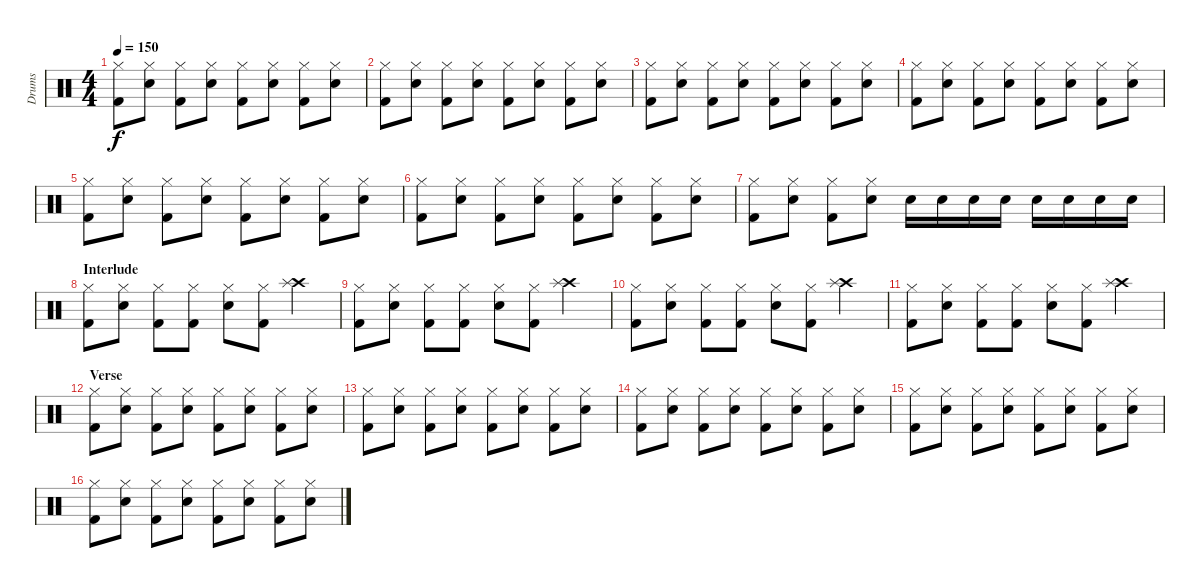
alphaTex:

\track ("Drums" "Drums") {instrument percussion}
\staff {score}
\articulation defaults
\ts (4 4)
\tempo 150
\clef neutral
\ks c
("Hi-Hat (closed)" "Kick (hit) 2").8{dy f} ("Hi-Hat (closed)" "Snare (hit) 2").8 ("Hi-Hat (closed)" "Kick (hit) 2").8 ("Hi-Hat (closed)" "Snare (hit) 2").8 ("Hi-Hat (closed)" "Kick (hit) 2").8 ("Hi-Hat (closed)" "Snare (hit) 2").8 ("Hi-Hat (closed)" "Kick (hit) 2").8 ("Hi-Hat (closed)" "Snare (hit) 2").8 |
("Hi-Hat (closed)" "Kick (hit) 2").8 ("Hi-Hat (closed)" "Snare (hit) 2").8 ("Hi-Hat (closed)" "Kick (hit) 2").8 ("Hi-Hat (closed)" "Snare (hit) 2").8 ("Hi-Hat (closed)" "Kick (hit) 2").8 ("Hi-Hat (closed)" "Snare (hit) 2").8 ("Hi-Hat (closed)" "Kick (hit) 2").8 ("Hi-Hat (closed)" "Snare (hit) 2").8 |
("Hi-Hat (closed)" "Kick (hit) 2").8 ("Hi-Hat (closed)" "Snare (hit) 2").8 ("Hi-Hat (closed)" "Kick (hit) 2").8 ("Hi-Hat (closed)" "Snare (hit) 2").8 ("Hi-Hat (closed)" "Kick (hit) 2").8 ("Hi-Hat (closed)" "Snare (hit) 2").8 ("Hi-Hat (closed)" "Kick (hit) 2").8 ("Hi-Hat (closed)" "Snare (hit) 2").8 |
("Hi-Hat (closed)" "Kick (hit) 2").8 ("Hi-Hat (closed)" "Snare (hit) 2").8 ("Hi-Hat (closed)" "Kick (hit) 2").8 ("Hi-Hat (closed)" "Snare (hit) 2").8 ("Hi-Hat (closed)" "Kick (hit) 2").8 ("Hi-Hat (closed)" "Snare (hit) 2").8 ("Hi-Hat (closed)" "Kick (hit) 2").8 ("Hi-Hat (closed)" "Snare (hit) 2").8 |
("Hi-Hat (closed)" "Kick (hit) 2").8 ("Hi-Hat (closed)" "Snare (hit) 2").8 ("Hi-Hat (closed)" "Kick (hit) 2").8 ("Hi-Hat (closed)" "Snare (hit) 2").8 ("Hi-Hat (closed)" "Kick (hit) 2").8 ("Hi-Hat (closed)" "Snare (hit) 2").8 ("Hi-Hat (closed)" "Kick (hit) 2").8 ("Hi-Hat (closed)" "Snare (hit) 2").8 |
("Hi-Hat (closed)" "Kick (hit) 2").8 ("Hi-Hat (closed)" "Snare (hit) 2").8 ("Hi-Hat (closed)" "Kick (hit) 2").8 ("Hi-Hat (closed)" "Snare (hit) 2").8 ("Hi-Hat (closed)" "Kick (hit) 2").8 ("Hi-Hat (closed)" "Snare (hit) 2").8 ("Hi-Hat (closed)" "Kick (hit) 2").8 ("Hi-Hat (closed)" "Snare (hit) 2").8 |
("Hi-Hat (closed)" "Kick (hit) 2").8 ("Hi-Hat (closed)" "Snare (hit) 2").8 ("Hi-Hat (closed)" "Kick (hit) 2").8 ("Hi-Hat (closed)" "Snare (hit) 2").8 "Snare (hit) 2".16 "Snare (hit) 2".16 "Snare (hit) 2".16 "Snare (hit) 2".16 "Snare (hit) 2".16 "Snare (hit) 2".16 "Snare (hit) 2".16 "Snare (hit) 2".16 |
\section ("" "Interlude")
("Hi-Hat (closed)" "Kick (hit) 2").8 ("Hi-Hat (closed)" "Snare (hit) 2").8 ("Hi-Hat (closed)" "Kick (hit) 2").8 ("Hi-Hat (closed)" "Kick (hit) 2").8 ("Hi-Hat (closed)" "Snare (hit) 2").8 ("Hi-Hat (closed)" "Kick (hit) 2").8 ("Crash high (hit)" "Splash (hit)").4 |
("Hi-Hat (closed)" "Kick (hit) 2").8 ("Hi-Hat (closed)" "Snare (hit) 2").8 ("Hi-Hat (closed)" "Kick (hit) 2").8 ("Hi-Hat (closed)" "Kick (hit) 2").8 ("Hi-Hat (closed)" "Snare (hit) 2").8 ("Hi-Hat (closed)" "Kick (hit) 2").8 ("Crash high (hit)" "Splash (hit)").4 |
("Hi-Hat (closed)" "Kick (hit) 2").8 ("Hi-Hat (closed)" "Snare (hit) 2").8 ("Hi-Hat (closed)" "Kick (hit) 2").8 ("Hi-Hat (closed)" "Kick (hit) 2").8 ("Hi-Hat (closed)" "Snare (hit) 2").8 ("Hi-Hat (closed)" "Kick (hit) 2").8 ("Crash high (hit)" "Splash (hit)").4 |
("Hi-Hat (closed)" "Kick (hit) 2").8 ("Hi-Hat (closed)" "Snare (hit) 2").8 ("Hi-Hat (closed)" "Kick (hit) 2").8 ("Hi-Hat (closed)" "Kick (hit) 2").8 ("Hi-Hat (closed)" "Snare (hit) 2").8 ("Hi-Hat (closed)" "Kick (hit) 2").8 ("Crash high (hit)" "Splash (hit)").4 |
\section ("" "Verse")
("Hi-Hat (closed)" "Kick (hit) 2").8 ("Hi-Hat (closed)" "Snare (hit) 2").8 ("Hi-Hat (closed)" "Kick (hit) 2").8 ("Hi-Hat (closed)" "Snare (hit) 2").8 ("Hi-Hat (closed)" "Kick (hit) 2").8 ("Hi-Hat (closed)" "Snare (hit) 2").8 ("Hi-Hat (closed)" "Kick (hit) 2").8 ("Hi-Hat (closed)" "Snare (hit) 2").8 |
("Hi-Hat (closed)" "Kick (hit) 2").8 ("Hi-Hat (closed)" "Snare (hit) 2").8 ("Hi-Hat (closed)" "Kick (hit) 2").8 ("Hi-Hat (closed)" "Snare (hit) 2").8 ("Hi-Hat (closed)" "Kick (hit) 2").8 ("Hi-Hat (closed)" "Snare (hit) 2").8 ("Hi-Hat (closed)" "Kick (hit) 2").8 ("Hi-Hat (closed)" "Snare (hit) 2").8 |
("Hi-Hat (closed)" "Kick (hit) 2").8 ("Hi-Hat (closed)" "Snare (hit) 2").8 ("Hi-Hat (closed)" "Kick (hit) 2").8 ("Hi-Hat (closed)" "Snare (hit) 2").8 ("Hi-Hat (closed)" "Kick (hit) 2").8 ("Hi-Hat (closed)" "Snare (hit) 2").8 ("Hi-Hat (closed)" "Kick (hit) 2").8 ("Hi-Hat (closed)" "Snare (hit) 2").8 |
("Hi-Hat (closed)" "Kick (hit) 2").8 ("Hi-Hat (closed)" "Snare (hit) 2").8 ("Hi-Hat (closed)" "Kick (hit) 2").8 ("Hi-Hat (closed)" "Snare (hit) 2").8 ("Hi-Hat (closed)" "Kick (hit) 2").8 ("Hi-Hat (closed)" "Snare (hit) 2").8 ("Hi-Hat (closed)" "Kick (hit) 2").8 ("Hi-Hat (closed)" "Snare (hit) 2").8 |
("Hi-Hat (closed)" "Kick (hit) 2").8 ("Hi-Hat (closed)" "Snare (hit) 2").8 ("Hi-Hat (closed)" "Kick (hit) 2").8 ("Hi-Hat (closed)" "Snare (hit) 2").8 ("Hi-Hat (closed)" "Kick (hit) 2").8 ("Hi-Hat (closed)" "Snare (hit) 2").8 ("Hi-Hat (closed)" "Kick (hit) 2").8 ("Hi-Hat (closed)" "Snare (hit) 2").8
